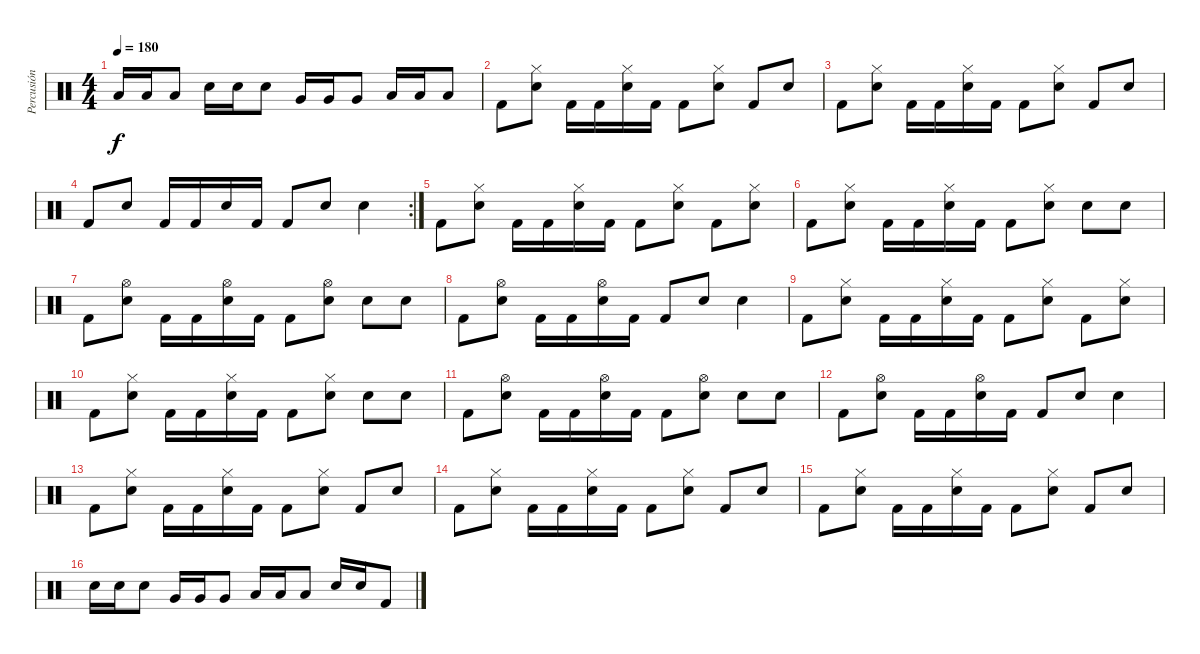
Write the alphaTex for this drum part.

\track ("Percusión" "Percusión") {instrument percussion}
\staff {score}
\articulation defaults
\ts (4 4)
\tempo 180
\clef neutral
\ks c "Low Floor Tom (hit)".16{dy f} "Low Floor Tom (hit)".16 "Low Floor Tom (hit)".8 "Electric Snare (hit)".16 "Electric Snare (hit)".16 "Electric Snare (hit)".8 "Very Low Tom (hit)".16 "Very Low Tom (hit)".16 "Very Low Tom (hit)".8 "Low Tom (hit)".16 "Low Tom (hit)".16 "Low Tom (hit)".8
|
"Kick (hit) 2".8 ("Electric Snare (hit)" "Hi-Hat (closed)").8 "Kick (hit) 2".16 "Kick (hit) 2".16 ("Electric Snare (hit)" "Hi-Hat (closed)").16 "Kick (hit) 2".16 "Kick (hit) 2".8 ("Electric Snare (hit)" "Hi-Hat (closed)").8 "Kick (hit) 2".8 "Electric Snare (hit)".8 |
"Kick (hit) 2".8 ("Electric Snare (hit)" "Hi-Hat (closed)").8 "Kick (hit) 2".16 "Kick (hit) 2".16 ("Electric Snare (hit)" "Hi-Hat (closed)").16 "Kick (hit) 2".16 "Kick (hit) 2".8 ("Electric Snare (hit)" "Hi-Hat (closed)").8 "Kick (hit) 2".8 "Electric Snare (hit)".8 |
\rc 2 "Kick (hit) 2".8 "Electric Snare (hit)".8 "Kick (hit) 2".16 "Kick (hit) 2".16 "Electric Snare (hit)".16 "Kick (hit) 2".16 "Kick (hit) 2".8 "Electric Snare (hit)".8 "Electric Snare (hit)".4
|
"Kick (hit) 2".8 ("Electric Snare (hit)" "Hi-Hat (closed)").8 "Kick (hit) 2".16 "Kick (hit) 2".16 ("Electric Snare (hit)" "Hi-Hat (closed)").16 "Kick (hit) 2".16 "Kick (hit) 2".8 ("Electric Snare (hit)" "Hi-Hat (closed)").8 "Kick (hit) 2".8 ("Electric Snare (hit)" "Hi-Hat (closed)").8 |
"Kick (hit) 2".8 ("Electric Snare (hit)" "Hi-Hat (closed)").8 "Kick (hit) 2".16 "Kick (hit) 2".16 ("Electric Snare (hit)" "Hi-Hat (closed)").16 "Kick (hit) 2".16 "Kick (hit) 2".8 ("Electric Snare (hit)" "Hi-Hat (closed)").8 "Electric Snare (hit)".8 "Electric Snare (hit)".8 |
"Kick (hit) 2".8 ("Electric Snare (hit)" "Hi-Hat (open)").8 "Kick (hit) 2".16 "Kick (hit) 2".16 ("Electric Snare (hit)" "Hi-Hat (open)").16 "Kick (hit) 2".16 "Kick (hit) 2".8 ("Electric Snare (hit)" "Hi-Hat (open)").8 "Electric Snare (hit)".8 "Electric Snare (hit)".8 |
"Kick (hit) 2".8 ("Electric Snare (hit)" "Hi-Hat (open)").8 "Kick (hit) 2".16 "Kick (hit) 2".16 ("Electric Snare (hit)" "Hi-Hat (open)").16 "Kick (hit) 2".16 "Kick (hit) 2".8 "Electric Snare (hit)".8 "Electric Snare (hit)".4 |
"Kick (hit) 2".8 ("Electric Snare (hit)" "Hi-Hat (closed)").8 "Kick (hit) 2".16 "Kick (hit) 2".16 ("Electric Snare (hit)" "Hi-Hat (closed)").16 "Kick (hit) 2".16 "Kick (hit) 2".8 ("Electric Snare (hit)" "Hi-Hat (closed)").8 "Kick (hit) 2".8 ("Electric Snare (hit)" "Hi-Hat (closed)").8 |
"Kick (hit) 2".8 ("Electric Snare (hit)" "Hi-Hat (closed)").8 "Kick (hit) 2".16 "Kick (hit) 2".16 ("Electric Snare (hit)" "Hi-Hat (closed)").16 "Kick (hit) 2".16 "Kick (hit) 2".8 ("Electric Snare (hit)" "Hi-Hat (closed)").8 "Electric Snare (hit)".8 "Electric Snare (hit)".8 |
"Kick (hit) 2".8 ("Electric Snare (hit)" "Hi-Hat (open)").8 "Kick (hit) 2".16 "Kick (hit) 2".16 ("Electric Snare (hit)" "Hi-Hat (open)").16 "Kick (hit) 2".16 "Kick (hit) 2".8 ("Electric Snare (hit)" "Hi-Hat (open)").8 "Electric Snare (hit)".8 "Electric Snare (hit)".8 |
"Kick (hit) 2".8 ("Electric Snare (hit)" "Hi-Hat (open)").8 "Kick (hit) 2".16 "Kick (hit) 2".16 ("Electric Snare (hit)" "Hi-Hat (open)").16 "Kick (hit) 2".16 "Kick (hit) 2".8 "Electric Snare (hit)".8 "Electric Snare (hit)".4 |
"Kick (hit) 2".8 ("Electric Snare (hit)" "Hi-Hat (closed)").8 "Kick (hit) 2".16 "Kick (hit) 2".16 ("Electric Snare (hit)" "Hi-Hat (closed)").16 "Kick (hit) 2".16 "Kick (hit) 2".8 ("Electric Snare (hit)" "Hi-Hat (closed)").8 "Kick (hit) 2".8 "Electric Snare (hit)".8 |
"Kick (hit) 2".8 ("Electric Snare (hit)" "Hi-Hat (closed)").8 "Kick (hit) 2".16 "Kick (hit) 2".16 ("Electric Snare (hit)" "Hi-Hat (closed)").16 "Kick (hit) 2".16 "Kick (hit) 2".8 ("Electric Snare (hit)" "Hi-Hat (closed)").8 "Kick (hit) 2".8 "Electric Snare (hit)".8 |
"Kick (hit) 2".8 ("Electric Snare (hit)" "Hi-Hat (closed)").8 "Kick (hit) 2".16 "Kick (hit) 2".16 ("Electric Snare (hit)" "Hi-Hat (closed)").16 "Kick (hit) 2".16 "Kick (hit) 2".8 ("Electric Snare (hit)" "Hi-Hat (closed)").8 "Kick (hit) 2".8 "Electric Snare (hit)".8 |
"Electric Snare (hit)".16 "Electric Snare (hit)".16 "Electric Snare (hit)".8 "Very Low Tom (hit)".16 "Very Low Tom (hit)".16 "Very Low Tom (hit)".8 "Low Floor Tom (hit)".16 "Low Floor Tom (hit)".16 "Low Floor Tom (hit)".8 "Electric Snare (hit)".16 "Electric Snare (hit)".16 "Kick (hit) 2".8
